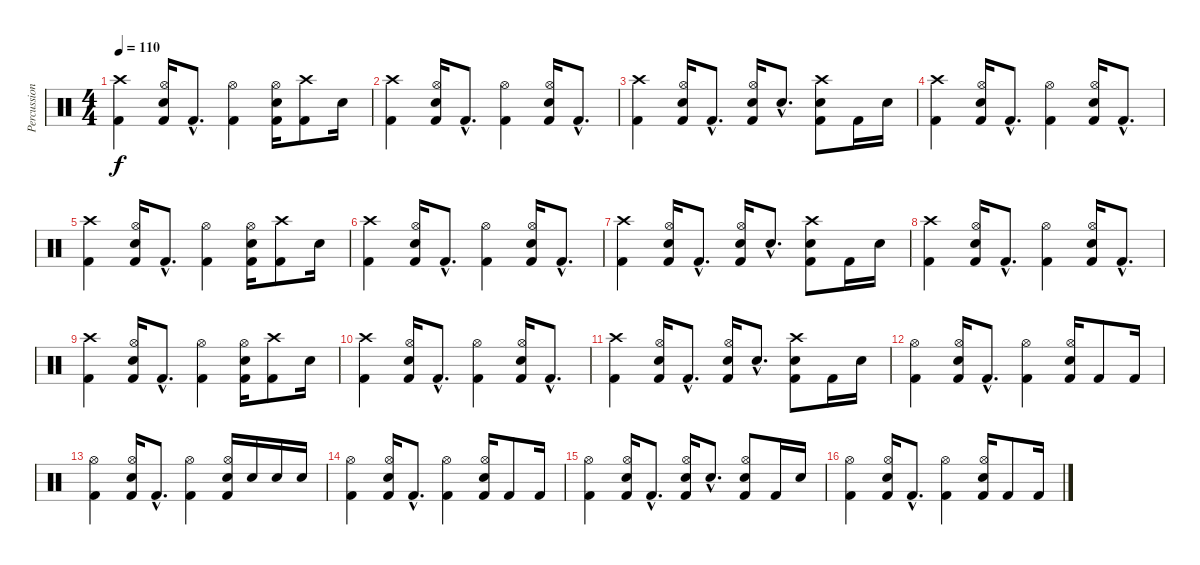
\track ("Percussions" "Percussion") {instrument percussion}
\staff {score}
\articulation defaults
\ts (4 4)
\tempo 110
\clef neutral
\ks c
("Crash high (hit)" "Kick (hit) 2").4{dy f} ("Hi-Hat (open)" "Electric Snare (hit)" "Kick (hit) 2").16 "Kick (hit) 2"{hac}.8{d} ("Hi-Hat (open)" "Kick (hit) 2").4 ("Hi-Hat (open)" "Electric Snare (hit)" "Kick (hit) 2").16 ("Crash high (hit)" "Kick (hit) 2").8 "Electric Snare (hit)".16 |
("Crash high (hit)" "Kick (hit) 2").4 ("Hi-Hat (open)" "Electric Snare (hit)" "Kick (hit) 2").16 "Kick (hit) 2"{hac}.8{d} ("Hi-Hat (open)" "Kick (hit) 2").4 ("Hi-Hat (open)" "Electric Snare (hit)" "Kick (hit) 2").16 "Kick (hit) 2"{hac}.8{d} |
("Crash high (hit)" "Kick (hit) 2").4 ("Hi-Hat (open)" "Electric Snare (hit)" "Kick (hit) 2").16 "Kick (hit) 2"{hac}.8{d} ("Hi-Hat (open)" "Electric Snare (hit)" "Kick (hit) 2").16 "Electric Snare (hit)"{hac}.8{d} ("Crash high (hit)" "Electric Snare (hit)" "Kick (hit) 2").8 "Kick (hit) 2".16 "Electric Snare (hit)".16 |
("Crash high (hit)" "Kick (hit) 2").4 ("Hi-Hat (open)" "Electric Snare (hit)" "Kick (hit) 2").16 "Kick (hit) 2"{hac}.8{d} ("Hi-Hat (open)" "Kick (hit) 2").4 ("Hi-Hat (open)" "Electric Snare (hit)" "Kick (hit) 2").16 "Kick (hit) 2"{hac}.8{d} |
("Crash high (hit)" "Kick (hit) 2").4 ("Hi-Hat (open)" "Electric Snare (hit)" "Kick (hit) 2").16 "Kick (hit) 2"{hac}.8{d} ("Hi-Hat (open)" "Kick (hit) 2").4 ("Hi-Hat (open)" "Electric Snare (hit)" "Kick (hit) 2").16 ("Crash high (hit)" "Kick (hit) 2").8 "Electric Snare (hit)".16 |
("Crash high (hit)" "Kick (hit) 2").4 ("Hi-Hat (open)" "Electric Snare (hit)" "Kick (hit) 2").16 "Kick (hit) 2"{hac}.8{d} ("Hi-Hat (open)" "Kick (hit) 2").4 ("Hi-Hat (open)" "Electric Snare (hit)" "Kick (hit) 2").16 "Kick (hit) 2"{hac}.8{d} |
("Crash high (hit)" "Kick (hit) 2").4 ("Hi-Hat (open)" "Electric Snare (hit)" "Kick (hit) 2").16 "Kick (hit) 2"{hac}.8{d} ("Hi-Hat (open)" "Electric Snare (hit)" "Kick (hit) 2").16 "Electric Snare (hit)"{hac}.8{d} ("Crash high (hit)" "Electric Snare (hit)" "Kick (hit) 2").8 "Kick (hit) 2".16 "Electric Snare (hit)".16 |
("Crash high (hit)" "Kick (hit) 2").4 ("Hi-Hat (open)" "Electric Snare (hit)" "Kick (hit) 2").16 "Kick (hit) 2"{hac}.8{d} ("Hi-Hat (open)" "Kick (hit) 2").4 ("Hi-Hat (open)" "Electric Snare (hit)" "Kick (hit) 2").16 "Kick (hit) 2"{hac}.8{d} |
("Crash high (hit)" "Kick (hit) 2").4 ("Hi-Hat (open)" "Electric Snare (hit)" "Kick (hit) 2").16 "Kick (hit) 2"{hac}.8{d} ("Hi-Hat (open)" "Kick (hit) 2").4 ("Hi-Hat (open)" "Electric Snare (hit)" "Kick (hit) 2").16 ("Crash high (hit)" "Kick (hit) 2").8 "Electric Snare (hit)".16 |
("Crash high (hit)" "Kick (hit) 2").4 ("Hi-Hat (open)" "Electric Snare (hit)" "Kick (hit) 2").16 "Kick (hit) 2"{hac}.8{d} ("Hi-Hat (open)" "Kick (hit) 2").4 ("Hi-Hat (open)" "Electric Snare (hit)" "Kick (hit) 2").16 "Kick (hit) 2"{hac}.8{d} |
("Crash high (hit)" "Kick (hit) 2").4 ("Hi-Hat (open)" "Electric Snare (hit)" "Kick (hit) 2").16 "Kick (hit) 2"{hac}.8{d} ("Hi-Hat (open)" "Electric Snare (hit)" "Kick (hit) 2").16 "Electric Snare (hit)"{hac}.8{d} ("Crash high (hit)" "Electric Snare (hit)" "Kick (hit) 2").8 "Kick (hit) 2".16 "Electric Snare (hit)".16 |
("Hi-Hat (open)" "Kick (hit) 2").4 ("Hi-Hat (open)" "Electric Snare (hit)" "Kick (hit) 2").16 "Kick (hit) 2"{hac}.8{d} ("Hi-Hat (open)" "Kick (hit) 2").4 ("Hi-Hat (open)" "Electric Snare (hit)" "Kick (hit) 2").16 "Kick (hit) 2".8 "Kick (hit) 2".16 |
("Hi-Hat (open)" "Kick (hit) 2").4 ("Hi-Hat (open)" "Electric Snare (hit)" "Kick (hit) 2").16 "Kick (hit) 2"{hac}.8{d} ("Hi-Hat (open)" "Kick (hit) 2").4 ("Hi-Hat (open)" "Electric Snare (hit)" "Kick (hit) 2").16 "Electric Snare (hit)".16 "Electric Snare (hit)".16 "Electric Snare (hit)".16 |
("Hi-Hat (open)" "Kick (hit) 2").4 ("Hi-Hat (open)" "Electric Snare (hit)" "Kick (hit) 2").16 "Kick (hit) 2"{hac}.8{d} ("Hi-Hat (open)" "Kick (hit) 2").4 ("Hi-Hat (open)" "Electric Snare (hit)" "Kick (hit) 2").16 "Kick (hit) 2".8 "Kick (hit) 2".16 |
("Hi-Hat (open)" "Kick (hit) 2").4 ("Hi-Hat (open)" "Electric Snare (hit)" "Kick (hit) 2").16 "Kick (hit) 2"{hac}.8{d} ("Hi-Hat (open)" "Electric Snare (hit)" "Kick (hit) 2").16 "Electric Snare (hit)"{hac}.8{d} ("Hi-Hat (open)" "Electric Snare (hit)" "Kick (hit) 2").8 "Kick (hit) 2".16 "Electric Snare (hit)".16 |
("Hi-Hat (open)" "Kick (hit) 2").4 ("Hi-Hat (open)" "Electric Snare (hit)" "Kick (hit) 2").16 "Kick (hit) 2"{hac}.8{d} ("Hi-Hat (open)" "Kick (hit) 2").4 ("Hi-Hat (open)" "Electric Snare (hit)" "Kick (hit) 2").16 "Kick (hit) 2".8 "Kick (hit) 2".16
